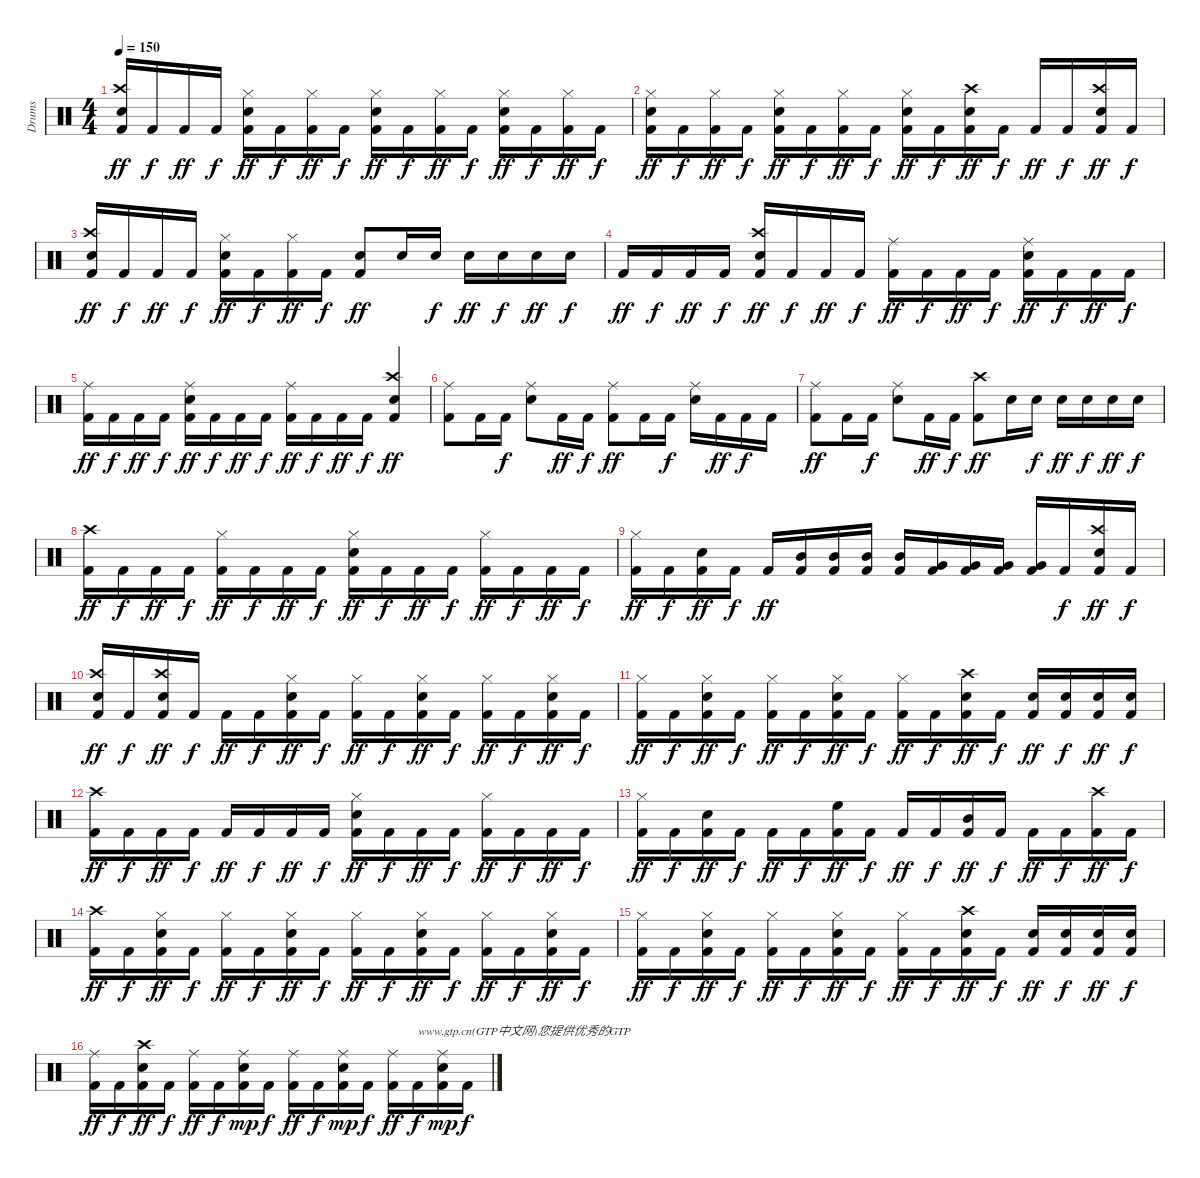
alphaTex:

\track ("Drums" "Drums") {instrument percussion}
\staff {score}
\articulation defaults
\ts (4 4)
\tempo 150
\clef neutral
\ks c
("Kick (hit) 2" "Crash high (hit)" "Snare (hit) 2").16{dy ff} "Kick (hit) 2".16{dy f} "Kick (hit) 2".16{dy ff} "Kick (hit) 2".16{dy f} ("Kick (hit) 2" "Hi-Hat (closed)" "Snare (hit) 2").16{dy ff} "Kick (hit) 2".16{dy f} ("Hi-Hat (closed)" "Kick (hit) 2").16{dy ff} "Kick (hit) 2".16{dy f} ("Kick (hit) 2" "Hi-Hat (closed)" "Snare (hit) 2").16{dy ff} "Kick (hit) 2".16{dy f} ("Hi-Hat (closed)" "Kick (hit) 2").16{dy ff} "Kick (hit) 2".16{dy f} ("Kick (hit) 2" "Hi-Hat (closed)" "Snare (hit) 2").16{dy ff} "Kick (hit) 2".16{dy f} ("Hi-Hat (closed)" "Kick (hit) 2").16{dy ff} "Kick (hit) 2".16{dy f} |
("Kick (hit) 2" "Hi-Hat (closed)" "Snare (hit) 2").16{dy ff} "Kick (hit) 2".16{dy f} ("Hi-Hat (closed)" "Kick (hit) 2").16{dy ff} "Kick (hit) 2".16{dy f} ("Kick (hit) 2" "Hi-Hat (closed)" "Snare (hit) 2").16{dy ff} "Kick (hit) 2".16{dy f} ("Hi-Hat (closed)" "Kick (hit) 2").16{dy ff} "Kick (hit) 2".16{dy f} ("Kick (hit) 2" "Hi-Hat (closed)" "Snare (hit) 2").16{dy ff} "Kick (hit) 2".16{dy f} ("Kick (hit) 2" "Snare (hit) 2" "Crash high (hit)").16{dy ff} "Kick (hit) 2".16{dy f} "Kick (hit) 2".16{dy ff} "Kick (hit) 2".16{dy f} ("Kick (hit) 2" "Snare (hit) 2" "Crash high (hit)").16{dy ff} "Kick (hit) 2".16{dy f} |
("Kick (hit) 2" "Crash high (hit)" "Snare (hit) 2").16{dy ff} "Kick (hit) 2".16{dy f} "Kick (hit) 2".16{dy ff} "Kick (hit) 2".16{dy f} ("Kick (hit) 2" "Hi-Hat (closed)" "Snare (hit) 2").16{dy ff} "Kick (hit) 2".16{dy f} ("Hi-Hat (closed)" "Kick (hit) 2").16{dy ff} "Kick (hit) 2".16{dy f} ("Kick (hit) 2" "Snare (hit) 2").8{dy ff} "Snare (hit) 2".16 "Snare (hit) 2".16{dy f} "Snare (hit) 2".16{dy ff} "Snare (hit) 2".16{dy f} "Snare (hit) 2".16{dy ff} "Snare (hit) 2".16{dy f} |
"Kick (hit) 2".16{dy ff} "Kick (hit) 2".16{dy f} "Kick (hit) 2".16{dy ff} "Kick (hit) 2".16{dy f} ("Kick (hit) 2" "Crash high (hit)" "Snare (hit) 2").16{dy ff} "Kick (hit) 2".16{dy f} "Kick (hit) 2".16{dy ff} "Kick (hit) 2".16{dy f} ("Ride (middle)" "Kick (hit) 2").16{dy ff} "Kick (hit) 2".16{dy f} "Kick (hit) 2".16{dy ff} "Kick (hit) 2".16{dy f} ("Kick (hit) 2" "Snare (hit) 2" "Ride (middle)").16{dy ff} "Kick (hit) 2".16{dy f} "Kick (hit) 2".16{dy ff} "Kick (hit) 2".16{dy f} |
("Ride (middle)" "Kick (hit) 2").16{dy ff} "Kick (hit) 2".16{dy f} "Kick (hit) 2".16{dy ff} "Kick (hit) 2".16{dy f} ("Kick (hit) 2" "Snare (hit) 2" "Ride (middle)").16{dy ff} "Kick (hit) 2".16{dy f} "Kick (hit) 2".16{dy ff} "Kick (hit) 2".16{dy f} ("Ride (middle)" "Kick (hit) 2").16{dy ff} "Kick (hit) 2".16{dy f} "Kick (hit) 2".16{dy ff} "Kick (hit) 2".16{dy f} ("Kick (hit) 2" "Crash high (hit)" "Snare (hit) 2").4{dy ff} |
("Ride (middle)" "Kick (hit) 2").8 "Kick (hit) 2".16 "Kick (hit) 2".16{dy f} ("Snare (hit) 2" "Ride (middle)").8 "Kick (hit) 2".16{dy ff} "Kick (hit) 2".16{dy f} ("Ride (middle)" "Kick (hit) 2").8{dy ff} "Kick (hit) 2".16 "Kick (hit) 2".16{dy f} ("Snare (hit) 2" "Ride (middle)").16 "Kick (hit) 2".16{dy ff} "Kick (hit) 2".16{dy f} "Kick (hit) 2".16 |
("Ride (middle)" "Kick (hit) 2").8{dy ff} "Kick (hit) 2".16 "Kick (hit) 2".16{dy f} ("Snare (hit) 2" "Ride (middle)").8 "Kick (hit) 2".16{dy ff} "Kick (hit) 2".16{dy f} ("Crash high (hit)" "Kick (hit) 2").8{dy ff} "Snare (hit) 2".16 "Snare (hit) 2".16{dy f} "Snare (hit) 2".16{dy ff} "Snare (hit) 2".16{dy f} "Snare (hit) 2".16{dy ff} "Snare (hit) 2".16{dy f} |
("Crash high (hit)" "Kick (hit) 2").16{dy ff} "Kick (hit) 2".16{dy f} "Kick (hit) 2".16{dy ff} "Kick (hit) 2".16{dy f} ("Hi-Hat (closed)" "Kick (hit) 2").16{dy ff} "Kick (hit) 2".16{dy f} "Kick (hit) 2".16{dy ff} "Kick (hit) 2".16{dy f} ("Kick (hit) 2" "Snare (hit) 2" "Hi-Hat (closed)").16{dy ff} "Kick (hit) 2".16{dy f} "Kick (hit) 2".16{dy ff} "Kick (hit) 2".16{dy f} ("Hi-Hat (closed)" "Kick (hit) 2").16{dy ff} "Kick (hit) 2".16{dy f} "Kick (hit) 2".16{dy ff} "Kick (hit) 2".16{dy f} |
("Hi-Hat (closed)" "Kick (hit) 2").16{dy ff} "Kick (hit) 2".16{dy f} ("Snare (hit) 2" "Kick (hit) 2").16{dy ff} "Kick (hit) 2".16{dy f} "Kick (hit) 2".16{dy ff} ("Mid Tom (hit)" "Kick (hit) 2").16 ("Mid Tom (hit)" "Kick (hit) 2").16 ("Mid Tom (hit)" "Kick (hit) 2").16 ("Mid Tom (hit)" "Kick (hit) 2").16 ("Very Low Tom (hit)" "Kick (hit) 2").16 ("Very Low Tom (hit)" "Kick (hit) 2").16 ("Very Low Tom (hit)" "Kick (hit) 2").16 ("Very Low Tom (hit)" "Kick (hit) 2").16 "Kick (hit) 2".16{dy f} ("Kick (hit) 2" "Crash high (hit)" "Snare (hit) 2").16{dy ff} "Kick (hit) 2".16{dy f} |
("Kick (hit) 2" "Snare (hit) 2" "Crash high (hit)").16{dy ff} "Kick (hit) 2".16{dy f} ("Kick (hit) 2" "Snare (hit) 2" "Crash high (hit)").16{dy ff} "Kick (hit) 2".16{dy f} "Kick (hit) 2".16{dy ff} "Kick (hit) 2".16{dy f} ("Kick (hit) 2" "Hi-Hat (closed)" "Snare (hit) 2").16{dy ff} "Kick (hit) 2".16{dy f} ("Hi-Hat (closed)" "Kick (hit) 2").16{dy ff} "Kick (hit) 2".16{dy f} ("Kick (hit) 2" "Hi-Hat (closed)" "Snare (hit) 2").16{dy ff} "Kick (hit) 2".16{dy f} ("Hi-Hat (closed)" "Kick (hit) 2").16{dy ff} "Kick (hit) 2".16{dy f} ("Kick (hit) 2" "Hi-Hat (closed)" "Snare (hit) 2").16{dy ff} "Kick (hit) 2".16{dy f} |
("Hi-Hat (closed)" "Kick (hit) 2").16{dy ff} "Kick (hit) 2".16{dy f} ("Kick (hit) 2" "Hi-Hat (closed)" "Snare (hit) 2").16{dy ff} "Kick (hit) 2".16{dy f} ("Hi-Hat (closed)" "Kick (hit) 2").16{dy ff} "Kick (hit) 2".16{dy f} ("Kick (hit) 2" "Hi-Hat (closed)" "Snare (hit) 2").16{dy ff} "Kick (hit) 2".16{dy f} ("Hi-Hat (closed)" "Kick (hit) 2").16{dy ff} "Kick (hit) 2".16{dy f} ("Snare (hit) 2" "Crash high (hit)" "Kick (hit) 2").16{dy ff} "Kick (hit) 2".16{dy f} ("Snare (hit) 2" "Kick (hit) 2").16{dy ff} ("Snare (hit) 2" "Kick (hit) 2").16{dy f} ("Snare (hit) 2" "Kick (hit) 2").16{dy ff} ("Snare (hit) 2" "Kick (hit) 2").16{dy f} |
("Crash high (hit)" "Kick (hit) 2").16{dy ff} "Kick (hit) 2".16{dy f} "Kick (hit) 2".16{dy ff} "Kick (hit) 2".16{dy f} "Kick (hit) 2".16{dy ff} "Kick (hit) 2".16{dy f} "Kick (hit) 2".16{dy ff} "Kick (hit) 2".16{dy f} ("Snare (hit) 2" "Hi-Hat (closed)" "Kick (hit) 2").16{dy ff} "Kick (hit) 2".16{dy f} "Kick (hit) 2".16{dy ff} "Kick (hit) 2".16{dy f} ("Hi-Hat (closed)" "Kick (hit) 2").16{dy ff} "Kick (hit) 2".16{dy f} "Kick (hit) 2".16{dy ff} "Kick (hit) 2".16{dy f} |
("Hi-Hat (closed)" "Kick (hit) 2").16{dy ff} "Kick (hit) 2".16{dy f} ("Snare (hit) 2" "Kick (hit) 2").16{dy ff} "Kick (hit) 2".16{dy f} "Kick (hit) 2".16{dy ff} "Kick (hit) 2".16{dy f} ("High Floor Tom (hit)" "Kick (hit) 2").16{dy ff} "Kick (hit) 2".16{dy f} "Kick (hit) 2".16{dy ff} "Kick (hit) 2".16{dy f} ("Mid Tom (hit)" "Kick (hit) 2").16{dy ff} "Kick (hit) 2".16{dy f} "Kick (hit) 2".16{dy ff} "Kick (hit) 2".16{dy f} ("Crash high (hit)" "Kick (hit) 2").16{dy ff} "Kick (hit) 2".16{dy f} |
("Crash high (hit)" "Kick (hit) 2").16{dy ff} "Kick (hit) 2".16{dy f} ("Kick (hit) 2" "Hi-Hat (closed)" "Snare (hit) 2").16{dy ff} "Kick (hit) 2".16{dy f} ("Hi-Hat (closed)" "Kick (hit) 2").16{dy ff} "Kick (hit) 2".16{dy f} ("Kick (hit) 2" "Hi-Hat (closed)" "Snare (hit) 2").16{dy ff} "Kick (hit) 2".16{dy f} ("Hi-Hat (closed)" "Kick (hit) 2").16{dy ff} "Kick (hit) 2".16{dy f} ("Kick (hit) 2" "Hi-Hat (closed)" "Snare (hit) 2").16{dy ff} "Kick (hit) 2".16{dy f} ("Hi-Hat (closed)" "Kick (hit) 2").16{dy ff} "Kick (hit) 2".16{dy f} ("Kick (hit) 2" "Hi-Hat (closed)" "Snare (hit) 2").16{dy ff} "Kick (hit) 2".16{dy f} |
("Hi-Hat (closed)" "Kick (hit) 2").16{dy ff} "Kick (hit) 2".16{dy f} ("Kick (hit) 2" "Hi-Hat (closed)" "Snare (hit) 2").16{dy ff} "Kick (hit) 2".16{dy f} ("Hi-Hat (closed)" "Kick (hit) 2").16{dy ff} "Kick (hit) 2".16{dy f} ("Kick (hit) 2" "Hi-Hat (closed)" "Snare (hit) 2").16{dy ff} "Kick (hit) 2".16{dy f} ("Hi-Hat (closed)" "Kick (hit) 2").16{dy ff} "Kick (hit) 2".16{dy f} ("Kick (hit) 2" "Snare (hit) 2" "Crash high (hit)").16{dy ff} "Kick (hit) 2".16{dy f} ("Snare (hit) 2" "Kick (hit) 2").16{dy ff} ("Snare (hit) 2" "Kick (hit) 2").16{dy f} ("Snare (hit) 2" "Kick (hit) 2").16{dy ff} ("Snare (hit) 2" "Kick (hit) 2").16{dy f} |
("Ride (middle)" "Kick (hit) 2").16{dy ff} "Kick (hit) 2".16{dy f} ("Snare (hit) 2" "Crash high (hit)" "Kick (hit) 2").16{dy ff} "Kick (hit) 2".16{dy f} ("Ride (middle)" "Kick (hit) 2").16{dy ff} "Kick (hit) 2".16{dy f} ("Kick (hit) 2" "Snare (hit) 2" "Ride (middle)").16{dy mp} "Kick (hit) 2".16{dy f} ("Ride (middle)" "Kick (hit) 2").16{dy ff} "Kick (hit) 2".16{dy f} ("Kick (hit) 2" "Snare (hit) 2" "Ride (middle)").16{dy mp} "Kick (hit) 2".16{dy f} ("Ride (middle)" "Kick (hit) 2").16{dy ff} "Kick (hit) 2".16{txt "www.gtp.cn(GTP中文网)您提供优秀的GTP" dy f} ("Kick (hit) 2" "Snare (hit) 2" "Ride (middle)").16{dy mp} "Kick (hit) 2".16{dy f}
